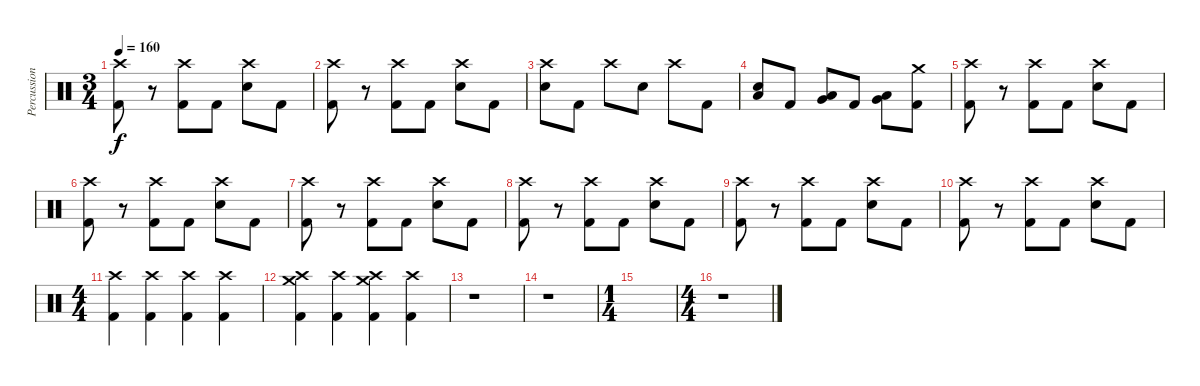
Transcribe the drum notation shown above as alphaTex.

\track ("Percussion" "Percussion") {instrument percussion}
\staff {score}
\articulation defaults
\ts (3 4)
\tempo 160
\clef neutral
\ks c
("Crash high (hit)" "Kick (hit) 2").8{dy f} r.8 ("Crash high (hit)" "Kick (hit) 2").8 "Kick (hit) 2".8 ("Crash high (hit)" "Electric Snare (hit)").8 "Kick (hit) 2".8 |
("Crash high (hit)" "Kick (hit) 2").8 r.8 ("Crash high (hit)" "Kick (hit) 2").8 "Kick (hit) 2".8 ("Crash high (hit)" "Electric Snare (hit)").8 "Kick (hit) 2".8 |
("Crash high (hit)" "Electric Snare (hit)").8 "Kick (hit) 2".8 "Crash high (hit)".8 "Electric Snare (hit)".8 "Crash high (hit)".8 "Kick (hit) 2".8 |
("Low Tom (hit)" "Electric Snare (hit)").8 "Kick (hit) 2".8 ("Very Low Tom (hit)" "Low Tom (hit)").8 "Kick (hit) 2".8 ("Low Floor Tom (hit)" "Very Low Tom (hit)").8 ("Crash medium (hit)" "Kick (hit) 2").8 |
("Crash high (hit)" "Kick (hit) 2").8 r.8 ("Crash high (hit)" "Kick (hit) 2").8 "Kick (hit) 2".8 ("Crash high (hit)" "Electric Snare (hit)").8 "Kick (hit) 2".8 |
("Crash high (hit)" "Kick (hit) 2").8 r.8 ("Crash high (hit)" "Kick (hit) 2").8 "Kick (hit) 2".8 ("Crash high (hit)" "Electric Snare (hit)").8 "Kick (hit) 2".8 |
("Crash high (hit)" "Kick (hit) 2").8 r.8 ("Crash high (hit)" "Kick (hit) 2").8 "Kick (hit) 2".8 ("Crash high (hit)" "Electric Snare (hit)").8 "Kick (hit) 2".8 |
("Crash high (hit)" "Kick (hit) 2").8 r.8 ("Crash high (hit)" "Kick (hit) 2").8 "Kick (hit) 2".8 ("Crash high (hit)" "Electric Snare (hit)").8 "Kick (hit) 2".8 |
("Crash high (hit)" "Kick (hit) 2").8 r.8 ("Crash high (hit)" "Kick (hit) 2").8 "Kick (hit) 2".8 ("Crash high (hit)" "Electric Snare (hit)").8 "Kick (hit) 2".8 |
("Crash high (hit)" "Kick (hit) 2").8 r.8 ("Crash high (hit)" "Kick (hit) 2").8 "Kick (hit) 2".8 ("Crash high (hit)" "Electric Snare (hit)").8 "Kick (hit) 2".8 |
\ts (4 4)
("Crash high (hit)" "Kick (hit) 2").4 ("Crash high (hit)" "Kick (hit) 2").4 ("Crash high (hit)" "Kick (hit) 2").4 ("Crash high (hit)" "Kick (hit) 2").4 |
("Crash medium (hit)" "Crash high (hit)" "Kick (hit) 2").4 ("Crash high (hit)" "Kick (hit) 2").4 ("Crash medium (hit)" "Crash high (hit)" "Kick (hit) 2").4 ("Crash high (hit)" "Kick (hit) 2").4 |
r.1 |
r.1 |
\ts (1 4)
|
\ts (4 4)
r.1
